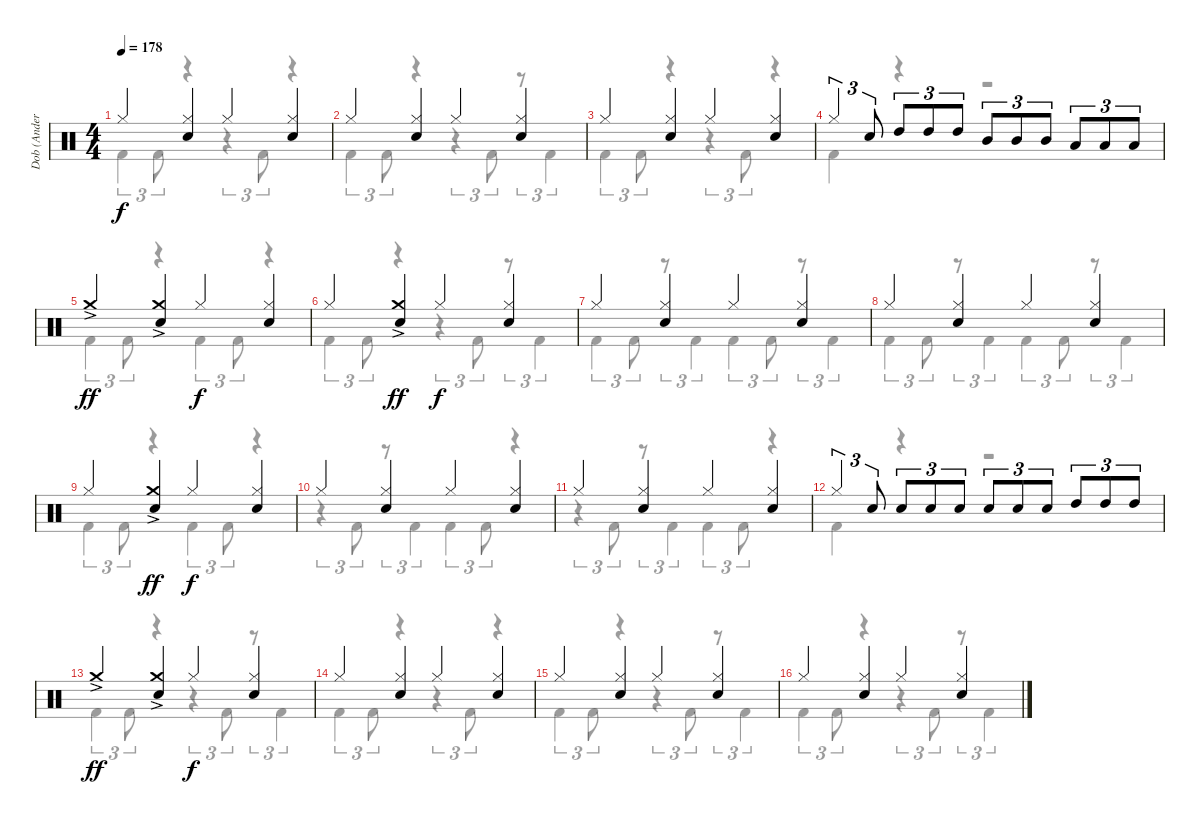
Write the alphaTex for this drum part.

\track ("Dob (Anders Johansson)" "Dob (Ander") {instrument percussion}
\staff {score}
\articulation defaults
\voice
\ts (4 4)
\tempo 178
\clef neutral
\ks c "Hi-Hat (closed)".4{dy f}
("Hi-Hat (closed)" "Electric Snare (hit)").4 "Hi-Hat (closed)".4 ("Hi-Hat (closed)" "Electric Snare (hit)").4 |
"Hi-Hat (closed)".4 ("Hi-Hat (closed)" "Electric Snare (hit)").4 "Hi-Hat (closed)".4 ("Hi-Hat (closed)" "Electric Snare (hit)").4 |
"Hi-Hat (closed)".4 ("Hi-Hat (closed)" "Electric Snare (hit)").4 "Hi-Hat (closed)".4 ("Hi-Hat (closed)" "Electric Snare (hit)").4 |
"Hi-Hat (closed)".4{tu (3 2)} "Electric Snare (hit)".8{tu (3 2)} "High Tom (hit)".8{tu (3 2)} "High Tom (hit)".8{tu (3 2)} "High Tom (hit)".8{tu (3 2)} "Mid Tom (hit)".8{tu (3 2)} "Mid Tom (hit)".8{tu (3 2)} "Mid Tom (hit)".8{tu (3 2)} "Low Tom (hit)".8{tu (3 2)} "Low Tom (hit)".8{tu (3 2)} "Low Tom (hit)".8{tu (3 2)} |
"Crash medium (hit)"{ac}.4{dy ff} ("Crash medium (hit)"{ac} "Electric Snare (hit)").4 "Hi-Hat (closed)".4{dy f} ("Hi-Hat (closed)" "Electric Snare (hit)").4 |
"Hi-Hat (closed)".4 ("Crash medium (hit)"{ac} "Electric Snare (hit)").4{dy ff} "Hi-Hat (closed)".4{dy f} ("Hi-Hat (closed)" "Electric Snare (hit)").4 |
"Hi-Hat (closed)".4 ("Hi-Hat (closed)" "Electric Snare (hit)").4 "Hi-Hat (closed)".4 ("Hi-Hat (closed)" "Electric Snare (hit)").4 |
"Hi-Hat (closed)".4 ("Hi-Hat (closed)" "Electric Snare (hit)").4 "Hi-Hat (closed)".4 ("Hi-Hat (closed)" "Electric Snare (hit)").4 |
"Hi-Hat (closed)".4 ("Crash medium (hit)"{ac} "Electric Snare (hit)").4{dy ff} "Hi-Hat (closed)".4{dy f} ("Hi-Hat (closed)" "Electric Snare (hit)").4 |
"Hi-Hat (closed)".4 ("Hi-Hat (closed)" "Electric Snare (hit)").4 "Hi-Hat (closed)".4 ("Hi-Hat (closed)" "Electric Snare (hit)").4 |
"Hi-Hat (closed)".4 ("Hi-Hat (closed)" "Electric Snare (hit)").4 "Hi-Hat (closed)".4 ("Hi-Hat (closed)" "Electric Snare (hit)").4 |
"Hi-Hat (closed)".4{tu (3 2)} "Electric Snare (hit)".8{tu (3 2)} "Electric Snare (hit)".8{tu (3 2)} "Electric Snare (hit)".8{tu (3 2)} "Electric Snare (hit)".8{tu (3 2)} "Electric Snare (hit)".8{tu (3 2)} "Electric Snare (hit)".8{tu (3 2)} "Electric Snare (hit)".8{tu (3 2)} "High Tom (hit)".8{tu (3 2)} "High Tom (hit)".8{tu (3 2)} "High Tom (hit)".8{tu (3 2)} |
"Crash medium (hit)"{ac}.4{dy ff} ("Crash medium (hit)"{ac} "Electric Snare (hit)").4 "Hi-Hat (closed)".4{dy f} ("Hi-Hat (closed)" "Electric Snare (hit)").4 |
"Hi-Hat (closed)".4 ("Hi-Hat (closed)" "Electric Snare (hit)").4 "Hi-Hat (closed)".4 ("Hi-Hat (closed)" "Electric Snare (hit)").4 |
"Hi-Hat (closed)".4 ("Hi-Hat (closed)" "Electric Snare (hit)").4 "Hi-Hat (closed)".4 ("Hi-Hat (closed)" "Electric Snare (hit)").4 |
"Hi-Hat (closed)".4 ("Hi-Hat (closed)" "Electric Snare (hit)").4 "Hi-Hat (closed)".4 ("Hi-Hat (closed)" "Electric Snare (hit)").4
\voice
\clef neutral
\ottava regular
\simile none
\ks c "Kick (hit) 2".4{tu (3 2) dy f} "Kick (hit) 2".8{tu (3 2)}
r.4 r.4{tu (3 2)} "Kick (hit) 2".8{tu (3 2)} r.4 |
"Kick (hit) 2".4{tu (3 2)} "Kick (hit) 2".8{tu (3 2)} r.4 r.4{tu (3 2)} "Kick (hit) 2".8{tu (3 2)} r.8{tu (3 2)} "Kick (hit) 2".4{tu (3 2)} |
"Kick (hit) 2".4{tu (3 2)} "Kick (hit) 2".8{tu (3 2)} r.4 r.4{tu (3 2)} "Kick (hit) 2".8{tu (3 2)} r.4 |
"Kick (hit) 2".4 r.4 r.2 |
"Kick (hit) 2".4{tu (3 2)} "Kick (hit) 2".8{tu (3 2)} r.4 "Kick (hit) 2".4{tu (3 2)} "Kick (hit) 2".8{tu (3 2)} r.4 |
"Kick (hit) 2".4{tu (3 2)} "Kick (hit) 2".8{tu (3 2)} r.4 r.4{tu (3 2)} "Kick (hit) 2".8{tu (3 2)} r.8{tu (3 2)} "Kick (hit) 2".4{tu (3 2)} |
"Kick (hit) 2".4{tu (3 2)} "Kick (hit) 2".8{tu (3 2)} r.8{tu (3 2)} "Kick (hit) 2".4{tu (3 2)} "Kick (hit) 2".4{tu (3 2)} "Kick (hit) 2".8{tu (3 2)} r.8{tu (3 2)} "Kick (hit) 2".4{tu (3 2)} |
"Kick (hit) 2".4{tu (3 2)} "Kick (hit) 2".8{tu (3 2)} r.8{tu (3 2)} "Kick (hit) 2".4{tu (3 2)} "Kick (hit) 2".4{tu (3 2)} "Kick (hit) 2".8{tu (3 2)} r.8{tu (3 2)} "Kick (hit) 2".4{tu (3 2)} |
"Kick (hit) 2".4{tu (3 2)} "Kick (hit) 2".8{tu (3 2)} r.4 "Kick (hit) 2".4{tu (3 2)} "Kick (hit) 2".8{tu (3 2)} r.4 |
r.4{tu (3 2)} "Kick (hit) 2".8{tu (3 2)} r.8{tu (3 2)} "Kick (hit) 2".4{tu (3 2)} "Kick (hit) 2".4{tu (3 2)} "Kick (hit) 2".8{tu (3 2)} r.4 |
r.4{tu (3 2)} "Kick (hit) 2".8{tu (3 2)} r.8{tu (3 2)} "Kick (hit) 2".4{tu (3 2)} "Kick (hit) 2".4{tu (3 2)} "Kick (hit) 2".8{tu (3 2)} r.4 |
"Kick (hit) 2".4 r.4 r.2 |
"Kick (hit) 2".4{tu (3 2)} "Kick (hit) 2".8{tu (3 2)} r.4 r.4{tu (3 2)} "Kick (hit) 2".8{tu (3 2)} r.8{tu (3 2)} "Kick (hit) 2".4{tu (3 2)} |
"Kick (hit) 2".4{tu (3 2)} "Kick (hit) 2".8{tu (3 2)} r.4 r.4{tu (3 2)} "Kick (hit) 2".8{tu (3 2)} r.4 |
"Kick (hit) 2".4{tu (3 2)} "Kick (hit) 2".8{tu (3 2)} r.4 r.4{tu (3 2)} "Kick (hit) 2".8{tu (3 2)} r.8{tu (3 2)} "Kick (hit) 2".4{tu (3 2)} |
"Kick (hit) 2".4{tu (3 2)} "Kick (hit) 2".8{tu (3 2)} r.4 r.4{tu (3 2)} "Kick (hit) 2".8{tu (3 2)} r.8{tu (3 2)} "Kick (hit) 2".4{tu (3 2)}
